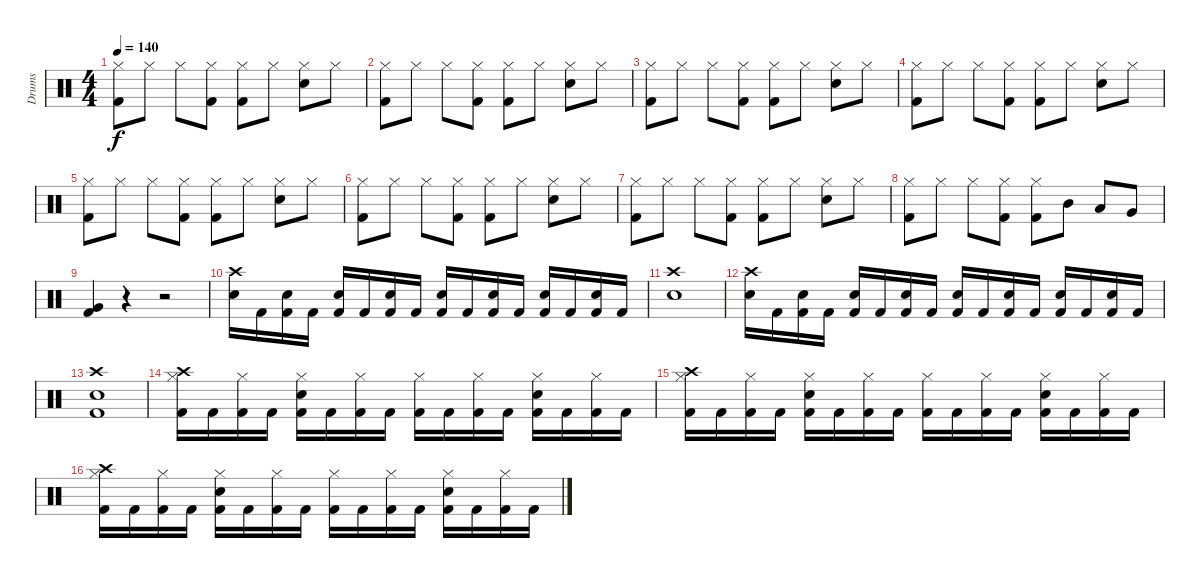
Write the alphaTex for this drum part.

\track ("Drums" "Drums") {instrument percussion}
\staff {score}
\articulation defaults
\ts (4 4)
\tempo 140
\clef neutral
\ks c
("Hi-Hat (closed)" "Kick (hit) 2").8{dy f} "Hi-Hat (closed)".8 "Hi-Hat (closed)".8 ("Hi-Hat (closed)" "Kick (hit) 2").8 ("Hi-Hat (closed)" "Kick (hit) 2").8 "Hi-Hat (closed)".8 ("Hi-Hat (closed)" "Electric Snare (hit)").8 "Hi-Hat (closed)".8 |
("Hi-Hat (closed)" "Kick (hit) 2").8 "Hi-Hat (closed)".8 "Hi-Hat (closed)".8 ("Hi-Hat (closed)" "Kick (hit) 2").8 ("Hi-Hat (closed)" "Kick (hit) 2").8 "Hi-Hat (closed)".8 ("Hi-Hat (closed)" "Electric Snare (hit)").8 "Hi-Hat (closed)".8 |
("Hi-Hat (closed)" "Kick (hit) 2").8 "Hi-Hat (closed)".8 "Hi-Hat (closed)".8 ("Hi-Hat (closed)" "Kick (hit) 2").8 ("Hi-Hat (closed)" "Kick (hit) 2").8 "Hi-Hat (closed)".8 ("Hi-Hat (closed)" "Electric Snare (hit)").8 "Hi-Hat (closed)".8 |
("Hi-Hat (closed)" "Kick (hit) 2").8 "Hi-Hat (closed)".8 "Hi-Hat (closed)".8 ("Hi-Hat (closed)" "Kick (hit) 2").8 ("Hi-Hat (closed)" "Kick (hit) 2").8 "Hi-Hat (closed)".8 ("Hi-Hat (closed)" "Electric Snare (hit)").8 "Hi-Hat (closed)".8 |
("Hi-Hat (closed)" "Kick (hit) 2").8 "Hi-Hat (closed)".8 "Hi-Hat (closed)".8 ("Hi-Hat (closed)" "Kick (hit) 2").8 ("Hi-Hat (closed)" "Kick (hit) 2").8 "Hi-Hat (closed)".8 ("Hi-Hat (closed)" "Electric Snare (hit)").8 "Hi-Hat (closed)".8 |
("Hi-Hat (closed)" "Kick (hit) 2").8 "Hi-Hat (closed)".8 "Hi-Hat (closed)".8 ("Hi-Hat (closed)" "Kick (hit) 2").8 ("Hi-Hat (closed)" "Kick (hit) 2").8 "Hi-Hat (closed)".8 ("Hi-Hat (closed)" "Electric Snare (hit)").8 "Hi-Hat (closed)".8 |
("Hi-Hat (closed)" "Kick (hit) 2").8 "Hi-Hat (closed)".8 "Hi-Hat (closed)".8 ("Hi-Hat (closed)" "Kick (hit) 2").8 ("Hi-Hat (closed)" "Kick (hit) 2").8 "Hi-Hat (closed)".8 ("Hi-Hat (closed)" "Electric Snare (hit)").8 "Hi-Hat (closed)".8 |
("Hi-Hat (closed)" "Kick (hit) 2").8 "Hi-Hat (closed)".8 "Hi-Hat (closed)".8 ("Hi-Hat (closed)" "Kick (hit) 2").8 ("Hi-Hat (closed)" "Kick (hit) 2").8 "Mid Tom (hit)".8 "Low Tom (hit)".8 "Very Low Tom (hit)".8 |
("Very Low Tom (hit)" "Kick (hit) 2").4 r.4 r.2 |
("Crash high (hit)" "Electric Snare (hit)").16 "Kick (hit) 2".16 ("Electric Snare (hit)" "Kick (hit) 2").16 "Kick (hit) 2".16 ("Electric Snare (hit)" "Kick (hit) 2").16 "Kick (hit) 2".16 ("Electric Snare (hit)" "Kick (hit) 2").16 "Kick (hit) 2".16 ("Electric Snare (hit)" "Kick (hit) 2").16 "Kick (hit) 2".16 ("Electric Snare (hit)" "Kick (hit) 2").16 "Kick (hit) 2".16 ("Electric Snare (hit)" "Kick (hit) 2").16 "Kick (hit) 2".16 ("Electric Snare (hit)" "Kick (hit) 2").16 "Kick (hit) 2".16 |
("Crash high (hit)" "Electric Snare (hit)").1 |
("Crash high (hit)" "Electric Snare (hit)").16 "Kick (hit) 2".16 ("Electric Snare (hit)" "Kick (hit) 2").16 "Kick (hit) 2".16 ("Electric Snare (hit)" "Kick (hit) 2").16 "Kick (hit) 2".16 ("Electric Snare (hit)" "Kick (hit) 2").16 "Kick (hit) 2".16 ("Electric Snare (hit)" "Kick (hit) 2").16 "Kick (hit) 2".16 ("Electric Snare (hit)" "Kick (hit) 2").16 "Kick (hit) 2".16 ("Electric Snare (hit)" "Kick (hit) 2").16 "Kick (hit) 2".16 ("Electric Snare (hit)" "Kick (hit) 2").16 "Kick (hit) 2".16 |
("Crash high (hit)" "Electric Snare (hit)" "Kick (hit) 2").1 |
("Hi-Hat (closed)" "Crash high (hit)" "Kick (hit) 2").16 "Kick (hit) 2".16 ("Hi-Hat (closed)" "Kick (hit) 2").16 "Kick (hit) 2".16 ("Hi-Hat (closed)" "Electric Snare (hit)" "Kick (hit) 2").16 "Kick (hit) 2".16 ("Hi-Hat (closed)" "Kick (hit) 2").16 "Kick (hit) 2".16 ("Hi-Hat (closed)" "Kick (hit) 2").16 "Kick (hit) 2".16 ("Hi-Hat (closed)" "Kick (hit) 2").16 "Kick (hit) 2".16 ("Hi-Hat (closed)" "Electric Snare (hit)" "Kick (hit) 2").16 "Kick (hit) 2".16 ("Hi-Hat (closed)" "Kick (hit) 2").16 "Kick (hit) 2".16 |
("Hi-Hat (closed)" "Crash high (hit)" "Kick (hit) 2").16 "Kick (hit) 2".16 ("Hi-Hat (closed)" "Kick (hit) 2").16 "Kick (hit) 2".16 ("Hi-Hat (closed)" "Electric Snare (hit)" "Kick (hit) 2").16 "Kick (hit) 2".16 ("Hi-Hat (closed)" "Kick (hit) 2").16 "Kick (hit) 2".16 ("Hi-Hat (closed)" "Kick (hit) 2").16 "Kick (hit) 2".16 ("Hi-Hat (closed)" "Kick (hit) 2").16 "Kick (hit) 2".16 ("Hi-Hat (closed)" "Electric Snare (hit)" "Kick (hit) 2").16 "Kick (hit) 2".16 ("Hi-Hat (closed)" "Kick (hit) 2").16 "Kick (hit) 2".16 |
("Hi-Hat (closed)" "Crash high (hit)" "Kick (hit) 2").16 "Kick (hit) 2".16 ("Hi-Hat (closed)" "Kick (hit) 2").16 "Kick (hit) 2".16 ("Hi-Hat (closed)" "Electric Snare (hit)" "Kick (hit) 2").16 "Kick (hit) 2".16 ("Hi-Hat (closed)" "Kick (hit) 2").16 "Kick (hit) 2".16 ("Hi-Hat (closed)" "Kick (hit) 2").16 "Kick (hit) 2".16 ("Hi-Hat (closed)" "Kick (hit) 2").16 "Kick (hit) 2".16 ("Hi-Hat (closed)" "Electric Snare (hit)" "Kick (hit) 2").16 "Kick (hit) 2".16 ("Hi-Hat (closed)" "Kick (hit) 2").16 "Kick (hit) 2".16
